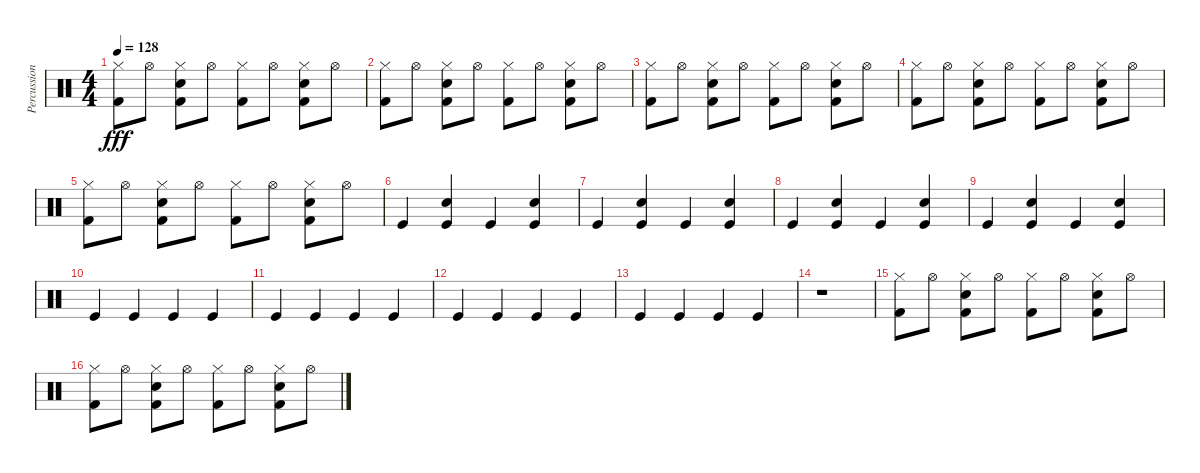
\track ("Percussion" "Percussion") {instrument percussion}
\staff {score}
\articulation defaults
\ts (4 4)
\tempo 128
\clef neutral
\ks c
("Hi-Hat (closed)" "Kick (hit) 2").8{dy fff} "Hi-Hat (open)".8 ("Hi-Hat (closed)" "Kick (hit) 2" "Hand Clap (hit)").8 "Hi-Hat (open)".8 ("Hi-Hat (closed)" "Kick (hit) 2").8 "Hi-Hat (open)".8 ("Hi-Hat (closed)" "Kick (hit) 2" "Hand Clap (hit)").8 "Hi-Hat (open)".8 |
("Hi-Hat (closed)" "Kick (hit) 2").8 "Hi-Hat (open)".8 ("Hi-Hat (closed)" "Kick (hit) 2" "Hand Clap (hit)").8 "Hi-Hat (open)".8 ("Hi-Hat (closed)" "Kick (hit) 2").8 "Hi-Hat (open)".8 ("Hi-Hat (closed)" "Kick (hit) 2" "Hand Clap (hit)").8 "Hi-Hat (open)".8 |
("Hi-Hat (closed)" "Kick (hit) 2").8 "Hi-Hat (open)".8 ("Hi-Hat (closed)" "Kick (hit) 2" "Hand Clap (hit)").8 "Hi-Hat (open)".8 ("Hi-Hat (closed)" "Kick (hit) 2").8 "Hi-Hat (open)".8 ("Hi-Hat (closed)" "Kick (hit) 2" "Hand Clap (hit)").8 "Hi-Hat (open)".8 |
("Hi-Hat (closed)" "Kick (hit) 2").8 "Hi-Hat (open)".8 ("Hi-Hat (closed)" "Kick (hit) 2" "Hand Clap (hit)").8 "Hi-Hat (open)".8 ("Hi-Hat (closed)" "Kick (hit) 2").8 "Hi-Hat (open)".8 ("Hi-Hat (closed)" "Kick (hit) 2" "Hand Clap (hit)").8 "Hi-Hat (open)".8 |
("Hi-Hat (closed)" "Kick (hit) 2").8 "Hi-Hat (open)".8 ("Hi-Hat (closed)" "Kick (hit) 2" "Hand Clap (hit)").8 "Hi-Hat (open)".8 ("Hi-Hat (closed)" "Kick (hit) 2").8 "Hi-Hat (open)".8 ("Hi-Hat (closed)" "Kick (hit) 2" "Hand Clap (hit)").8 "Hi-Hat (open)".8 |
"Kick (hit)".4 ("Hand Clap (hit)" "Kick (hit)").4 "Kick (hit)".4 ("Hand Clap (hit)" "Kick (hit)").4 |
"Kick (hit)".4 ("Hand Clap (hit)" "Kick (hit)").4 "Kick (hit)".4 ("Hand Clap (hit)" "Kick (hit)").4 |
"Kick (hit)".4 ("Hand Clap (hit)" "Kick (hit)").4 "Kick (hit)".4 ("Hand Clap (hit)" "Kick (hit)").4 |
"Kick (hit)".4 ("Hand Clap (hit)" "Kick (hit)").4 "Kick (hit)".4 ("Hand Clap (hit)" "Kick (hit)").4 |
"Kick (hit)".4 "Kick (hit)".4 "Kick (hit)".4 "Kick (hit)".4 |
"Kick (hit)".4 "Kick (hit)".4 "Kick (hit)".4 "Kick (hit)".4 |
"Kick (hit)".4 "Kick (hit)".4 "Kick (hit)".4 "Kick (hit)".4 |
"Kick (hit)".4 "Kick (hit)".4 "Kick (hit)".4 "Kick (hit)".4 |
r.1 |
("Hi-Hat (closed)" "Kick (hit) 2").8 "Hi-Hat (open)".8 ("Hi-Hat (closed)" "Kick (hit) 2" "Hand Clap (hit)").8 "Hi-Hat (open)".8 ("Hi-Hat (closed)" "Kick (hit) 2").8 "Hi-Hat (open)".8 ("Hi-Hat (closed)" "Kick (hit) 2" "Hand Clap (hit)").8 "Hi-Hat (open)".8 |
("Hi-Hat (closed)" "Kick (hit) 2").8 "Hi-Hat (open)".8 ("Hi-Hat (closed)" "Kick (hit) 2" "Hand Clap (hit)").8 "Hi-Hat (open)".8 ("Hi-Hat (closed)" "Kick (hit) 2").8 "Hi-Hat (open)".8 ("Hi-Hat (closed)" "Kick (hit) 2" "Hand Clap (hit)").8 "Hi-Hat (open)".8
